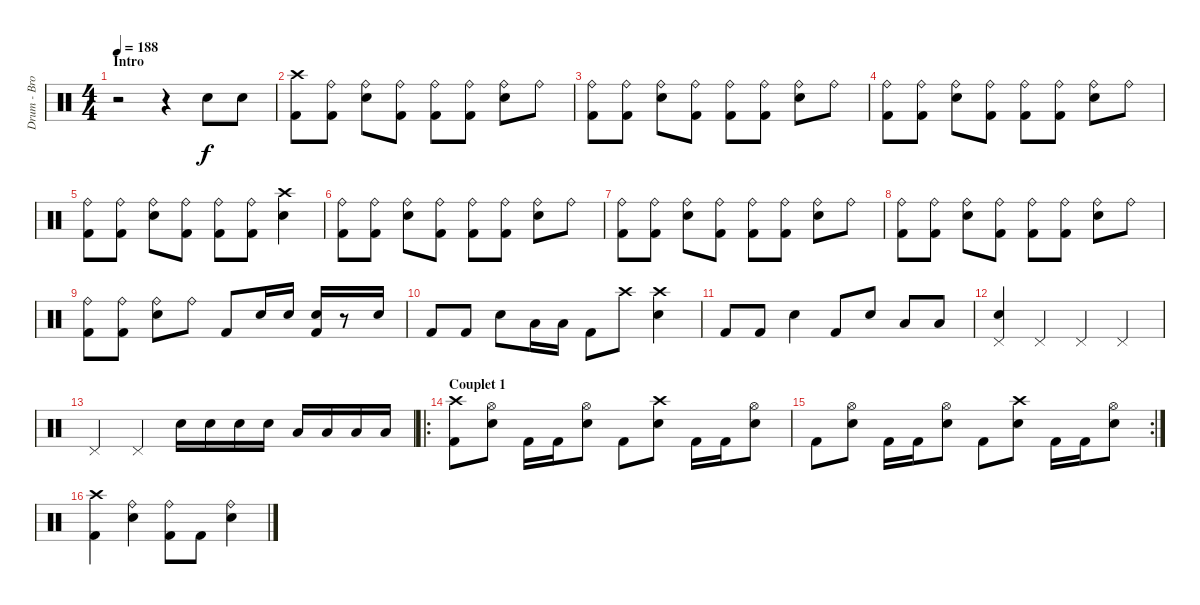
\track ("Drum - Brooks Wackerman" "Drum - Bro") {instrument percussion}
\staff {score}
\articulation defaults
\ts (4 4)
\section ("" "Intro")
\tempo 188
\clef neutral
\ks c
r.2{dy f} r.4 "Electric Snare (hit)".8 "Electric Snare (hit)".8 |
("Crash high (hit)" "Kick (hit) 2").8 ("Ride (bell)" "Kick (hit) 2").8 ("Ride (bell)" "Electric Snare (hit)").8 ("Ride (bell)" "Kick (hit) 2").8 ("Ride (bell)" "Kick (hit) 2").8 ("Ride (bell)" "Kick (hit) 2").8 ("Ride (bell)" "Electric Snare (hit)").8 "Ride (bell)".8 |
("Ride (bell)" "Kick (hit) 2").8 ("Ride (bell)" "Kick (hit) 2").8 ("Ride (bell)" "Electric Snare (hit)").8 ("Ride (bell)" "Kick (hit) 2").8 ("Ride (bell)" "Kick (hit) 2").8 ("Ride (bell)" "Kick (hit) 2").8 ("Ride (bell)" "Electric Snare (hit)").8 "Ride (bell)".8 |
("Ride (bell)" "Kick (hit) 2").8 ("Ride (bell)" "Kick (hit) 2").8 ("Ride (bell)" "Electric Snare (hit)").8 ("Ride (bell)" "Kick (hit) 2").8 ("Ride (bell)" "Kick (hit) 2").8 ("Ride (bell)" "Kick (hit) 2").8 ("Ride (bell)" "Electric Snare (hit)").8 "Ride (bell)".8 |
("Ride (bell)" "Kick (hit) 2").8 ("Ride (bell)" "Kick (hit) 2").8 ("Ride (bell)" "Electric Snare (hit)").8 ("Ride (bell)" "Kick (hit) 2").8 ("Ride (bell)" "Kick (hit) 2").8 ("Ride (bell)" "Kick (hit) 2").8 ("Crash high (hit)" "Electric Snare (hit)").4 |
("Ride (bell)" "Kick (hit) 2").8 ("Ride (bell)" "Kick (hit) 2").8 ("Ride (bell)" "Electric Snare (hit)").8 ("Ride (bell)" "Kick (hit) 2").8 ("Ride (bell)" "Kick (hit) 2").8 ("Ride (bell)" "Kick (hit) 2").8 ("Ride (bell)" "Electric Snare (hit)").8 "Ride (bell)".8 |
("Ride (bell)" "Kick (hit) 2").8 ("Ride (bell)" "Kick (hit) 2").8 ("Ride (bell)" "Electric Snare (hit)").8 ("Ride (bell)" "Kick (hit) 2").8 ("Ride (bell)" "Kick (hit) 2").8 ("Ride (bell)" "Kick (hit) 2").8 ("Ride (bell)" "Electric Snare (hit)").8 "Ride (bell)".8 |
("Ride (bell)" "Kick (hit) 2").8 ("Ride (bell)" "Kick (hit) 2").8 ("Ride (bell)" "Electric Snare (hit)").8 ("Ride (bell)" "Kick (hit) 2").8 ("Ride (bell)" "Kick (hit) 2").8 ("Ride (bell)" "Kick (hit) 2").8 ("Ride (bell)" "Electric Snare (hit)").8 "Ride (bell)".8 |
("Ride (bell)" "Kick (hit) 2").8 ("Ride (bell)" "Kick (hit) 2").8 ("Ride (bell)" "Electric Snare (hit)").8 "Ride (bell)".8 "Kick (hit) 2".8 "Electric Snare (hit)".16 "Electric Snare (hit)".16 ("Electric Snare (hit)" "Kick (hit) 2").16 r.8 "Electric Snare (hit)".16 |
"Kick (hit) 2".8 "Kick (hit) 2".8 "Electric Snare (hit)".8 "Low Floor Tom (hit)".16 "Low Floor Tom (hit)".16 "Kick (hit) 2".8 "Crash high (hit)".8 ("Crash high (hit)" "Electric Snare (hit)").4 |
"Kick (hit) 2".8 "Kick (hit) 2".8 "Electric Snare (hit)".4 "Kick (hit) 2".8 "Electric Snare (hit)".8 "Low Floor Tom (hit)".8 "Low Floor Tom (hit)".8 |
("Electric Snare (hit)" "Pedal Hi-Hat (hit)").4 "Pedal Hi-Hat (hit)".4 "Pedal Hi-Hat (hit)".4 "Pedal Hi-Hat (hit)".4 |
"Pedal Hi-Hat (hit)".4 "Pedal Hi-Hat (hit)".4 "Electric Snare (hit)".16 "Electric Snare (hit)".16 "Electric Snare (hit)".16 "Electric Snare (hit)".16 "Low Floor Tom (hit)".16 "Low Floor Tom (hit)".16 "Low Floor Tom (hit)".16 "Low Floor Tom (hit)".16 |
\ro
\section ("" "Couplet 1")
("Crash high (hit)" "Kick (hit) 2").8 ("Hi-Hat (open)" "Electric Snare (hit)").8 "Kick (hit) 2".16 "Kick (hit) 2".16 ("Hi-Hat (open)" "Electric Snare (hit)").8 "Kick (hit) 2".8 ("Crash high (hit)" "Electric Snare (hit)").8 "Kick (hit) 2".16 "Kick (hit) 2".16 ("Hi-Hat (open)" "Electric Snare (hit)").8 |
\rc 2 "Kick (hit) 2".8
("Hi-Hat (open)" "Electric Snare (hit)").8 "Kick (hit) 2".16 "Kick (hit) 2".16 ("Hi-Hat (open)" "Electric Snare (hit)").8 "Kick (hit) 2".8 ("Crash high (hit)" "Electric Snare (hit)").8 "Kick (hit) 2".16 "Kick (hit) 2".16 ("Hi-Hat (open)" "Electric Snare (hit)").8 |
("Crash high (hit)" "Kick (hit) 2").4 ("Ride (bell)" "Electric Snare (hit)").4 ("Ride (bell)" "Kick (hit) 2").8 "Kick (hit) 2".8 ("Ride (bell)" "Electric Snare (hit)").4
